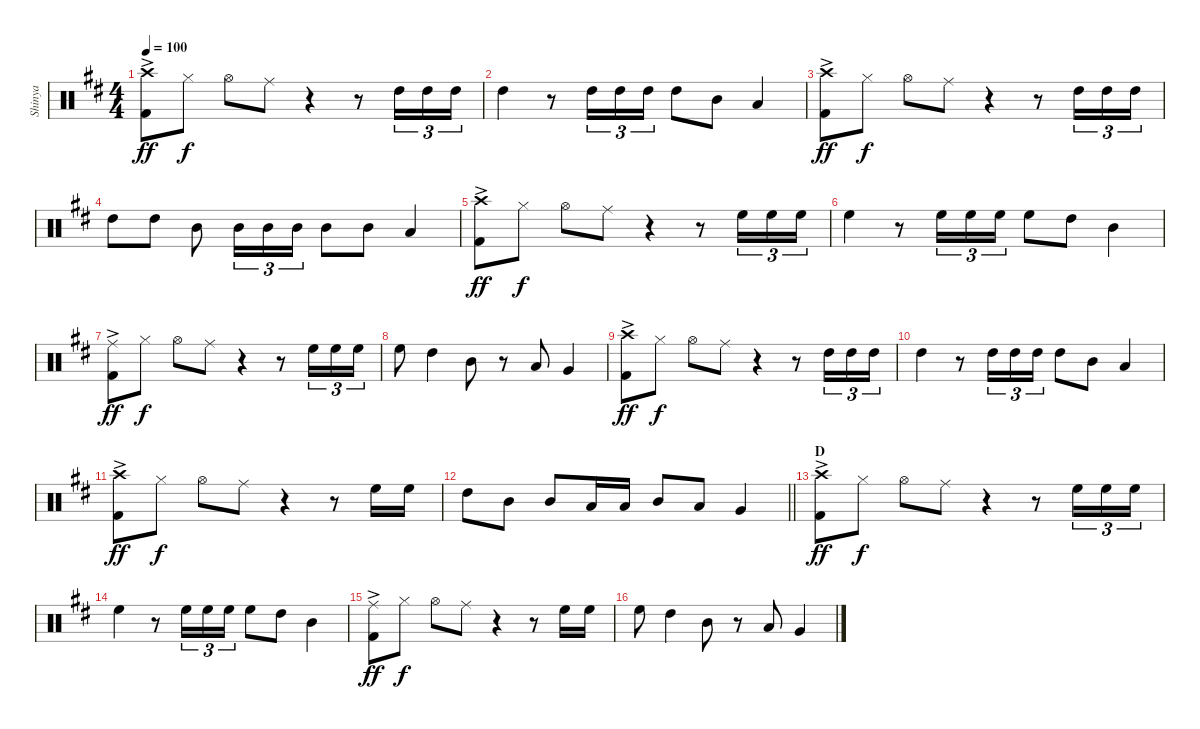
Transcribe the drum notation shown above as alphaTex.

\track ("Shinya" "Shinya") {instrument percussion}
\staff {score}
\articulation defaults
\ts (4 4)
\tempo 100
\clef neutral
\ks d
("Crash high (hit)"{ac} "Kick (hit) 2").8{dy ff} "Hi-Hat (closed)".8{dy f} "Hi-Hat (open)".8 "Ride (middle)".8 r.4 r.8 "High Tom (hit)".16{tu (3 2)} "High Tom (hit)".16{tu (3 2)} "High Tom (hit)".16{tu (3 2)} |
"High Tom (hit)".4 r.8 "High Tom (hit)".16{tu (3 2)} "High Tom (hit)".16{tu (3 2)} "High Tom (hit)".16{tu (3 2)} "High Tom (hit)".8 "Mid Tom (hit)".8 "Low Tom (hit)".4 |
("Crash high (hit)"{ac} "Kick (hit) 2").8{dy ff} "Hi-Hat (closed)".8{dy f} "Hi-Hat (open)".8 "Ride (middle)".8 r.4 r.8 "High Tom (hit)".16{tu (3 2)} "High Tom (hit)".16{tu (3 2)} "High Tom (hit)".16{tu (3 2)} |
"High Tom (hit)".8 "High Tom (hit)".8 "Mid Tom (hit)".8 "Mid Tom (hit)".16{tu (3 2)} "Mid Tom (hit)".16{tu (3 2)} "Mid Tom (hit)".16{tu (3 2)} "Mid Tom (hit)".8 "Mid Tom (hit)".8 "Low Tom (hit)".4 |
("Crash high (hit)"{ac} "Kick (hit) 2").8{dy ff} "Hi-Hat (closed)".8{dy f} "Hi-Hat (open)".8 "Ride (middle)".8 r.4 r.8 "High Floor Tom (hit)".16{tu (3 2)} "High Floor Tom (hit)".16{tu (3 2)} "High Floor Tom (hit)".16{tu (3 2)} |
"High Floor Tom (hit)".4 r.8 "High Floor Tom (hit)".16{tu (3 2)} "High Floor Tom (hit)".16{tu (3 2)} "High Floor Tom (hit)".16{tu (3 2)} "High Floor Tom (hit)".8 "High Tom (hit)".8 "Mid Tom (hit)".4 |
("Ride (middle)"{ac} "Kick (hit) 2").8{dy ff} "Hi-Hat (closed)".8{dy f} "Hi-Hat (open)".8 "Ride (middle)".8 r.4 r.8 "High Floor Tom (hit)".16{tu (3 2)} "High Floor Tom (hit)".16{tu (3 2)} "High Floor Tom (hit)".16{tu (3 2)} |
"High Floor Tom (hit)".8 "High Tom (hit)".4 "Mid Tom (hit)".8 r.8 "Low Tom (hit)".8 "Very Low Tom (hit)".4 |
("Crash high (hit)"{ac} "Kick (hit) 2").8{dy ff} "Hi-Hat (closed)".8{dy f} "Hi-Hat (open)".8 "Ride (middle)".8 r.4 r.8 "High Tom (hit)".16{tu (3 2)} "High Tom (hit)".16{tu (3 2)} "High Tom (hit)".16{tu (3 2)} |
"High Tom (hit)".4 r.8 "High Tom (hit)".16{tu (3 2)} "High Tom (hit)".16{tu (3 2)} "High Tom (hit)".16{tu (3 2)} "High Tom (hit)".8 "Mid Tom (hit)".8 "Low Tom (hit)".4 |
("Crash high (hit)"{ac} "Kick (hit) 2").8{dy ff} "Hi-Hat (closed)".8{dy f} "Hi-Hat (open)".8 "Ride (middle)".8 r.4 r.8 "High Floor Tom (hit)".16 "High Floor Tom (hit)".16 |
\barLineRight lightlight "High Tom (hit)".8 "Mid Tom (hit)".8 "Mid Tom (hit)".8 "Low Tom (hit)".16 "Low Tom (hit)".16 "Mid Tom (hit)".8 "Low Tom (hit)".8 "Very Low Tom (hit)".4
|
\section ("" "D")
("Crash high (hit)"{ac} "Kick (hit) 2").8{dy ff} "Hi-Hat (closed)".8{dy f} "Hi-Hat (open)".8 "Ride (middle)".8 r.4 r.8 "High Floor Tom (hit)".16{tu (3 2)} "High Floor Tom (hit)".16{tu (3 2)} "High Floor Tom (hit)".16{tu (3 2)} |
"High Floor Tom (hit)".4 r.8 "High Floor Tom (hit)".16{tu (3 2)} "High Floor Tom (hit)".16{tu (3 2)} "High Floor Tom (hit)".16{tu (3 2)} "High Floor Tom (hit)".8 "High Tom (hit)".8 "Mid Tom (hit)".4 |
("Ride (middle)"{ac} "Kick (hit) 2").8{dy ff} "Hi-Hat (closed)".8{dy f} "Hi-Hat (open)".8 "Ride (middle)".8 r.4 r.8 "High Floor Tom (hit)".16 "High Floor Tom (hit)".16 |
"High Floor Tom (hit)".8 "High Tom (hit)".4 "Mid Tom (hit)".8 r.8 "Low Tom (hit)".8 "Very Low Tom (hit)".4
